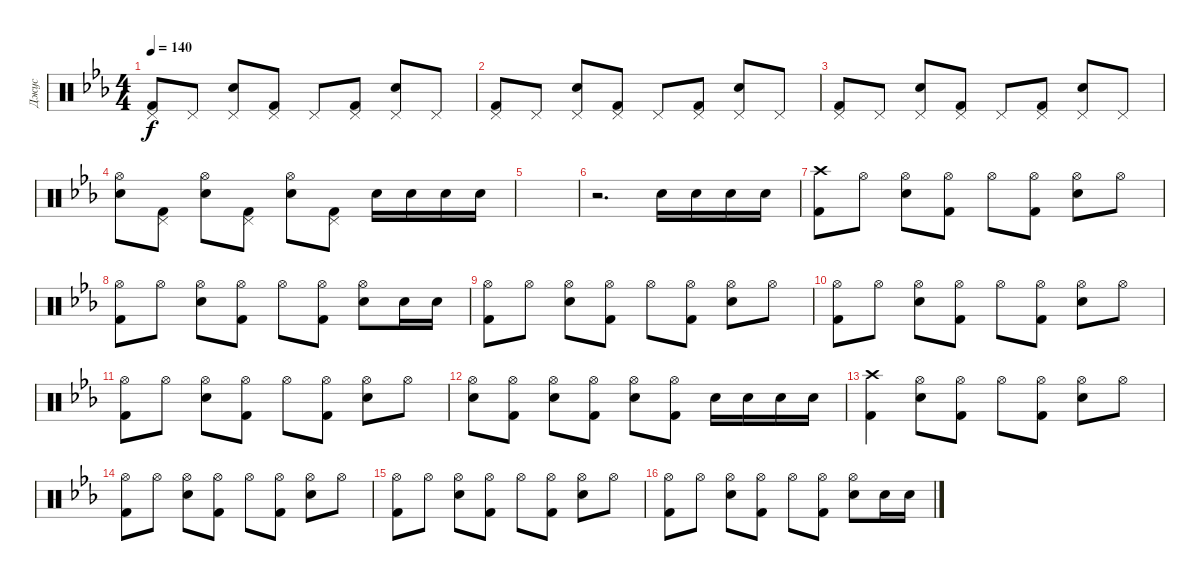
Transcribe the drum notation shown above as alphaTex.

\track ("Джус" "Джус") {instrument percussion}
\staff {score}
\articulation defaults
\ts (4 4)
\tempo 140
\clef neutral
\ks eb
("Pedal Hi-Hat (hit)" "Kick (hit) 2").8{dy f} "Pedal Hi-Hat (hit)".8 ("Pedal Hi-Hat (hit)" "Electric Snare (hit)").8 ("Pedal Hi-Hat (hit)" "Kick (hit) 2").8 "Pedal Hi-Hat (hit)".8 ("Pedal Hi-Hat (hit)" "Kick (hit) 2").8 ("Pedal Hi-Hat (hit)" "Electric Snare (hit)").8 "Pedal Hi-Hat (hit)".8 |
("Pedal Hi-Hat (hit)" "Kick (hit) 2").8 "Pedal Hi-Hat (hit)".8 ("Pedal Hi-Hat (hit)" "Electric Snare (hit)").8 ("Pedal Hi-Hat (hit)" "Kick (hit) 2").8 "Pedal Hi-Hat (hit)".8 ("Pedal Hi-Hat (hit)" "Kick (hit) 2").8 ("Pedal Hi-Hat (hit)" "Electric Snare (hit)").8 "Pedal Hi-Hat (hit)".8 |
("Pedal Hi-Hat (hit)" "Kick (hit) 2").8 "Pedal Hi-Hat (hit)".8 ("Pedal Hi-Hat (hit)" "Electric Snare (hit)").8 ("Pedal Hi-Hat (hit)" "Kick (hit) 2").8 "Pedal Hi-Hat (hit)".8 ("Pedal Hi-Hat (hit)" "Kick (hit) 2").8 ("Pedal Hi-Hat (hit)" "Electric Snare (hit)").8 "Pedal Hi-Hat (hit)".8 |
("Hi-Hat (open)" "Electric Snare (hit)").8 ("Pedal Hi-Hat (hit)" "Kick (hit) 2").8 ("Hi-Hat (open)" "Electric Snare (hit)").8 ("Pedal Hi-Hat (hit)" "Kick (hit) 2").8 ("Hi-Hat (open)" "Electric Snare (hit)").8 ("Pedal Hi-Hat (hit)" "Kick (hit) 2").8 "Electric Snare (hit)".16 "Electric Snare (hit)".16 "Electric Snare (hit)".16 "Electric Snare (hit)".16 |
|
r.2{d volume 16} "Electric Snare (hit)".16 "Electric Snare (hit)".16 "Electric Snare (hit)".16 "Electric Snare (hit)".16 |
("Crash high (hit)" "Kick (hit) 2").8 "Hi-Hat (open)".8 ("Hi-Hat (open)" "Electric Snare (hit)").8 ("Hi-Hat (open)" "Kick (hit) 2").8 "Hi-Hat (open)".8 ("Hi-Hat (open)" "Kick (hit) 2").8 ("Hi-Hat (open)" "Electric Snare (hit)").8 "Hi-Hat (open)".8 |
("Hi-Hat (open)" "Kick (hit) 2").8 "Hi-Hat (open)".8 ("Hi-Hat (open)" "Electric Snare (hit)").8 ("Hi-Hat (open)" "Kick (hit) 2").8 "Hi-Hat (open)".8 ("Hi-Hat (open)" "Kick (hit) 2").8 ("Hi-Hat (open)" "Electric Snare (hit)").8 "Electric Snare (hit)".16 "Electric Snare (hit)".16 |
("Hi-Hat (open)" "Kick (hit) 2").8 "Hi-Hat (open)".8 ("Hi-Hat (open)" "Electric Snare (hit)").8 ("Hi-Hat (open)" "Kick (hit) 2").8 "Hi-Hat (open)".8 ("Hi-Hat (open)" "Kick (hit) 2").8 ("Hi-Hat (open)" "Electric Snare (hit)").8 "Hi-Hat (open)".8 |
("Hi-Hat (open)" "Kick (hit) 2").8 "Hi-Hat (open)".8 ("Hi-Hat (open)" "Electric Snare (hit)").8 ("Hi-Hat (open)" "Kick (hit) 2").8 "Hi-Hat (open)".8 ("Hi-Hat (open)" "Kick (hit) 2").8 ("Hi-Hat (open)" "Electric Snare (hit)").8 "Hi-Hat (open)".8 |
("Hi-Hat (open)" "Kick (hit) 2").8 "Hi-Hat (open)".8 ("Hi-Hat (open)" "Electric Snare (hit)").8 ("Hi-Hat (open)" "Kick (hit) 2").8 "Hi-Hat (open)".8 ("Hi-Hat (open)" "Kick (hit) 2").8 ("Hi-Hat (open)" "Electric Snare (hit)").8 "Hi-Hat (open)".8 |
("Hi-Hat (open)" "Electric Snare (hit)").8 ("Hi-Hat (open)" "Kick (hit) 2").8 ("Hi-Hat (open)" "Electric Snare (hit)").8 ("Hi-Hat (open)" "Kick (hit) 2").8 ("Hi-Hat (open)" "Electric Snare (hit)").8 ("Hi-Hat (open)" "Kick (hit) 2").8 "Electric Snare (hit)".16 "Electric Snare (hit)".16 "Electric Snare (hit)".16 "Electric Snare (hit)".16 |
("Crash high (hit)" "Kick (hit) 2").4 ("Hi-Hat (open)" "Electric Snare (hit)").8 ("Hi-Hat (open)" "Kick (hit) 2").8 "Hi-Hat (open)".8 ("Hi-Hat (open)" "Kick (hit) 2").8 ("Hi-Hat (open)" "Electric Snare (hit)").8 "Hi-Hat (open)".8 |
("Hi-Hat (open)" "Kick (hit) 2").8 "Hi-Hat (open)".8 ("Hi-Hat (open)" "Electric Snare (hit)").8 ("Hi-Hat (open)" "Kick (hit) 2").8 "Hi-Hat (open)".8 ("Hi-Hat (open)" "Kick (hit) 2").8 ("Hi-Hat (open)" "Electric Snare (hit)").8 "Hi-Hat (open)".8 |
("Hi-Hat (open)" "Kick (hit) 2").8 "Hi-Hat (open)".8 ("Hi-Hat (open)" "Electric Snare (hit)").8 ("Hi-Hat (open)" "Kick (hit) 2").8 "Hi-Hat (open)".8 ("Hi-Hat (open)" "Kick (hit) 2").8 ("Hi-Hat (open)" "Electric Snare (hit)").8 "Hi-Hat (open)".8 |
("Hi-Hat (open)" "Kick (hit) 2").8 "Hi-Hat (open)".8 ("Hi-Hat (open)" "Electric Snare (hit)").8 ("Hi-Hat (open)" "Kick (hit) 2").8 "Hi-Hat (open)".8 ("Hi-Hat (open)" "Kick (hit) 2").8 ("Hi-Hat (open)" "Electric Snare (hit)").8 "Electric Snare (hit)".16 "Electric Snare (hit)".16
